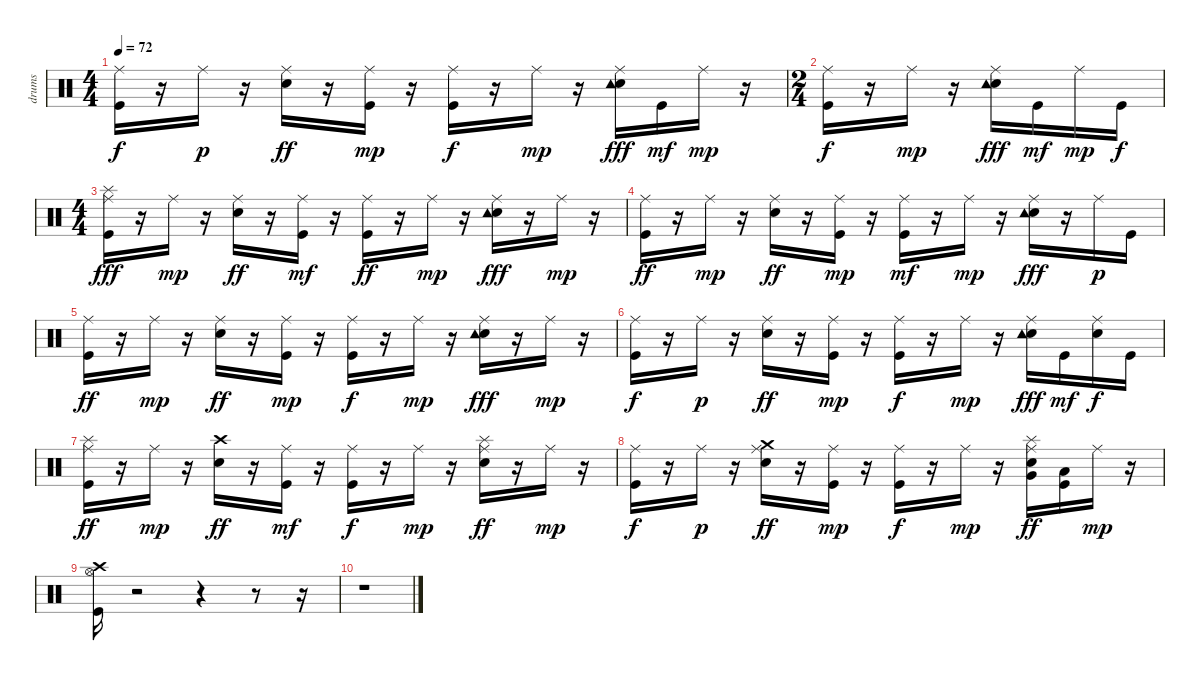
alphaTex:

\track ("drums" "drums") {instrument percussion}
\staff {score}
\articulation defaults
\ts (4 4)
\tempo 72
\clef neutral
\ks c
("Ride (middle)" "Kick (hit)").16{dy f} r.16 "Ride (middle)".16{dy p} r.16 ("Snare (hit) 2" "Ride (middle)").16{dy ff} r.16 ("Ride (middle)" "Kick (hit)").16{dy mp} r.16 ("Ride (middle)" "Kick (hit)").16{dy f} r.16 "Ride (middle)".16{dy mp} r.16 ("Snare (hit) 2" "Ride (middle)" "Tambourine (hit)").16{dy fff} "Kick (hit)".16{dy mf} "Ride (middle)".16{dy mp} r.16 |
\ts (2 4)
("Kick (hit)" "Ride (middle)").16{dy f} r.16 "Ride (middle)".16{dy mp} r.16 ("Ride (middle)" "Snare (hit) 2" "Tambourine (hit)").16{dy fff} "Kick (hit)".16{dy mf} "Ride (middle)".16{dy mp} "Kick (hit)".16{dy f} |
\ts (4 4)
("Splash (hit)" "Kick (hit)" "Ride (middle)").16{dy fff} r.16 "Ride (middle)".16{dy mp} r.16 ("Snare (hit) 2" "Ride (middle)").16{dy ff} r.16 ("Ride (middle)" "Kick (hit)").16{dy mf} r.16 ("Ride (middle)" "Kick (hit)").16{dy ff} r.16 "Ride (middle)".16{dy mp} r.16 ("Snare (hit) 2" "Ride (middle)" "Tambourine (hit)").16{dy fff} r.16 "Ride (middle)".16{dy mp} r.16 |
("Kick (hit)" "Ride (middle)").16{dy ff} r.16 "Ride (middle)".16{dy mp} r.16 ("Snare (hit) 2" "Ride (middle)").16{dy ff} r.16 ("Kick (hit)" "Ride (middle)").16{dy mp} r.16 ("Kick (hit)" "Ride (middle)").16{dy mf} r.16 "Ride (middle)".16{dy mp} r.16 ("Snare (hit) 2" "Ride (middle)" "Tambourine (hit)").16{dy fff} r.16 "Ride (middle)".16{dy p} "Kick (hit)".16 |
("Kick (hit)" "Ride (middle)").16{dy ff} r.16 "Ride (middle)".16{dy mp} r.16 ("Snare (hit) 2" "Ride (middle)").16{dy ff} r.16 ("Kick (hit)" "Ride (middle)").16{dy mp} r.16 ("Kick (hit)" "Ride (middle)").16{dy f} r.16 "Ride (middle)".16{dy mp} r.16 ("Snare (hit) 2" "Ride (middle)" "Tambourine (hit)").16{dy fff} r.16 "Ride (middle)".16{dy mp} r.16 |
("Ride (middle)" "Kick (hit)").16{dy f} r.16 "Ride (middle)".16{dy p} r.16 ("Snare (hit) 2" "Ride (middle)").16{dy ff} r.16 ("Ride (middle)" "Kick (hit)").16{dy mp} r.16 ("Ride (middle)" "Kick (hit)").16{dy f} r.16 "Ride (middle)".16{dy mp} r.16 ("Snare (hit) 2" "Ride (middle)" "Tambourine (hit)").16{dy fff} "Kick (hit)".16{dy mf} ("Snare (hit) 2" "Ride (middle)").16{dy f} "Kick (hit)".16 |
("Splash (hit)" "Kick (hit)" "Ride (middle)").16{dy ff} r.16 "Ride (middle)".16{dy mp} r.16 ("Crash high (hit)" "Snare (hit) 2").16{dy ff} r.16 ("Ride (middle)" "Kick (hit)").16{dy mf} r.16 ("Ride (middle)" "Kick (hit)").16{dy f} r.16 "Ride (middle)".16{dy mp} r.16 ("Splash (hit)" "Ride (middle)" "Snare (hit) 2").16{dy ff} r.16 "Ride (middle)".16{dy mp} r.16 |
("Kick (hit)" "Ride (middle)").16{dy f} r.16 "Ride (middle)".16{dy p} r.16 ("Crash medium (hit)" "Ride (middle)" "Snare (hit) 2").16{dy ff} r.16 ("Kick (hit)" "Ride (middle)").16{dy mp} r.16 ("Kick (hit)" "Ride (middle)").16{dy f} r.16 "Ride (middle)".16{dy mp} r.16 ("Splash (hit)" "Ride (middle)" "Snare (hit) 2" "Very Low Tom (hit)").16{dy ff} ("Kick (hit)" "Low Floor Tom (hit)").16 "Ride (middle)".16{dy mp} r.16 |
("Crash high (hit)" "Kick (hit)" "Hi-Hat (open)").16 r.2 r.4 r.8 r.16 |
r.1
